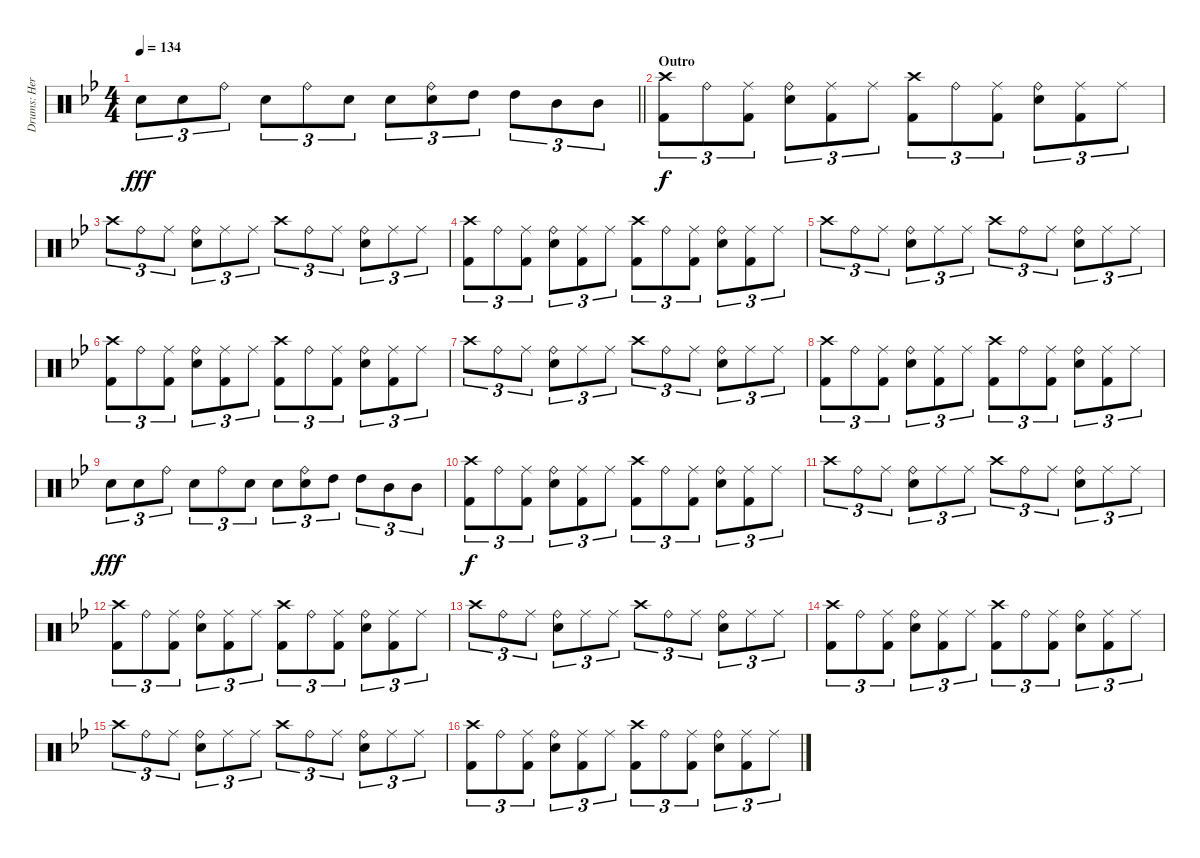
\track ("Drums: Herman" "Drums: Her") {instrument percussion}
\staff {score}
\articulation defaults
\ts (4 4)
\tempo 134
\clef neutral
\barLineRight lightlight
\ks bb "Snare (hit) 2".8{tu (3 2) dy fff} "Snare (hit) 2".8{tu (3 2)} "Ride (bell)".8{tu (3 2)} "Snare (hit) 2".8{tu (3 2)} "Ride (bell)".8{tu (3 2)} "Snare (hit) 2".8{tu (3 2)} "Snare (hit) 2".8{tu (3 2)}
("Ride (bell)" "Snare (hit) 2").8{tu (3 2)} "High Tom (hit)".8{tu (3 2)} "High Tom (hit)".8{tu (3 2)} "Mid Tom (hit)".8{tu (3 2)} "Mid Tom (hit)".8{tu (3 2)} |
\section ("" "Outro")
("Crash high (hit)" "Kick (hit) 2").8{tu (3 2) dy f} "Ride (bell)".8{tu (3 2)} ("Ride (middle)" "Kick (hit) 2").8{tu (3 2)} ("Ride (bell)" "Snare (hit) 2").8{tu (3 2)} ("Ride (middle)" "Kick (hit) 2").8{tu (3 2)} "Ride (middle)".8{tu (3 2)} ("Crash high (hit)" "Kick (hit) 2").8{tu (3 2)} "Ride (bell)".8{tu (3 2)} ("Ride (middle)" "Kick (hit) 2").8{tu (3 2)} ("Ride (bell)" "Snare (hit) 2").8{tu (3 2)} ("Ride (middle)" "Kick (hit) 2").8{tu (3 2)} "Ride (middle)".8{tu (3 2)} |
"Crash high (hit)".8{tu (3 2)} "Ride (bell)".8{tu (3 2)} "Ride (middle)".8{tu (3 2)} ("Ride (bell)" "Snare (hit) 2").8{tu (3 2)} "Ride (middle)".8{tu (3 2)} "Ride (middle)".8{tu (3 2)} "Crash high (hit)".8{tu (3 2)} "Ride (bell)".8{tu (3 2)} "Ride (middle)".8{tu (3 2)} ("Ride (bell)" "Snare (hit) 2").8{tu (3 2)} "Ride (middle)".8{tu (3 2)} "Ride (middle)".8{tu (3 2)} |
("Crash high (hit)" "Kick (hit) 2").8{tu (3 2)} "Ride (bell)".8{tu (3 2)} ("Ride (middle)" "Kick (hit) 2").8{tu (3 2)} ("Ride (bell)" "Snare (hit) 2").8{tu (3 2)} ("Ride (middle)" "Kick (hit) 2").8{tu (3 2)} "Ride (middle)".8{tu (3 2)} ("Crash high (hit)" "Kick (hit) 2").8{tu (3 2)} "Ride (bell)".8{tu (3 2)} ("Ride (middle)" "Kick (hit) 2").8{tu (3 2)} ("Ride (bell)" "Snare (hit) 2").8{tu (3 2)} ("Ride (middle)" "Kick (hit) 2").8{tu (3 2)} "Ride (middle)".8{tu (3 2)} |
"Crash high (hit)".8{tu (3 2)} "Ride (bell)".8{tu (3 2)} "Ride (middle)".8{tu (3 2)} ("Ride (bell)" "Snare (hit) 2").8{tu (3 2)} "Ride (middle)".8{tu (3 2)} "Ride (middle)".8{tu (3 2)} "Crash high (hit)".8{tu (3 2)} "Ride (bell)".8{tu (3 2)} "Ride (middle)".8{tu (3 2)} ("Ride (bell)" "Snare (hit) 2").8{tu (3 2)} "Ride (middle)".8{tu (3 2)} "Ride (middle)".8{tu (3 2)} |
("Crash high (hit)" "Kick (hit) 2").8{tu (3 2)} "Ride (bell)".8{tu (3 2)} ("Ride (middle)" "Kick (hit) 2").8{tu (3 2)} ("Ride (bell)" "Snare (hit) 2").8{tu (3 2)} ("Ride (middle)" "Kick (hit) 2").8{tu (3 2)} "Ride (middle)".8{tu (3 2)} ("Crash high (hit)" "Kick (hit) 2").8{tu (3 2)} "Ride (bell)".8{tu (3 2)} ("Ride (middle)" "Kick (hit) 2").8{tu (3 2)} ("Ride (bell)" "Snare (hit) 2").8{tu (3 2)} ("Ride (middle)" "Kick (hit) 2").8{tu (3 2)} "Ride (middle)".8{tu (3 2)} |
"Crash high (hit)".8{tu (3 2)} "Ride (bell)".8{tu (3 2)} "Ride (middle)".8{tu (3 2)} ("Ride (bell)" "Snare (hit) 2").8{tu (3 2)} "Ride (middle)".8{tu (3 2)} "Ride (middle)".8{tu (3 2)} "Crash high (hit)".8{tu (3 2)} "Ride (bell)".8{tu (3 2)} "Ride (middle)".8{tu (3 2)} ("Ride (bell)" "Snare (hit) 2").8{tu (3 2)} "Ride (middle)".8{tu (3 2)} "Ride (middle)".8{tu (3 2)} |
("Crash high (hit)" "Kick (hit) 2").8{tu (3 2)} "Ride (bell)".8{tu (3 2)} ("Ride (middle)" "Kick (hit) 2").8{tu (3 2)} ("Ride (bell)" "Snare (hit) 2").8{tu (3 2)} ("Ride (middle)" "Kick (hit) 2").8{tu (3 2)} "Ride (middle)".8{tu (3 2)} ("Crash high (hit)" "Kick (hit) 2").8{tu (3 2)} "Ride (bell)".8{tu (3 2)} ("Ride (middle)" "Kick (hit) 2").8{tu (3 2)} ("Ride (bell)" "Snare (hit) 2").8{tu (3 2)} ("Ride (middle)" "Kick (hit) 2").8{tu (3 2)} "Ride (middle)".8{tu (3 2)} |
"Snare (hit) 2".8{tu (3 2) dy fff} "Snare (hit) 2".8{tu (3 2)} "Ride (bell)".8{tu (3 2)} "Snare (hit) 2".8{tu (3 2)} "Ride (bell)".8{tu (3 2)} "Snare (hit) 2".8{tu (3 2)} "Snare (hit) 2".8{tu (3 2)} ("Ride (bell)" "Snare (hit) 2").8{tu (3 2)} "High Tom (hit)".8{tu (3 2)} "High Tom (hit)".8{tu (3 2)} "Mid Tom (hit)".8{tu (3 2)} "Mid Tom (hit)".8{tu (3 2)} |
("Crash high (hit)" "Kick (hit) 2").8{tu (3 2) dy f} "Ride (bell)".8{tu (3 2)} ("Ride (middle)" "Kick (hit) 2").8{tu (3 2)} ("Ride (bell)" "Snare (hit) 2").8{tu (3 2)} ("Ride (middle)" "Kick (hit) 2").8{tu (3 2)} "Ride (middle)".8{tu (3 2)} ("Crash high (hit)" "Kick (hit) 2").8{tu (3 2)} "Ride (bell)".8{tu (3 2)} ("Ride (middle)" "Kick (hit) 2").8{tu (3 2)} ("Ride (bell)" "Snare (hit) 2").8{tu (3 2)} ("Ride (middle)" "Kick (hit) 2").8{tu (3 2)} "Ride (middle)".8{tu (3 2)} |
"Crash high (hit)".8{tu (3 2)} "Ride (bell)".8{tu (3 2)} "Ride (middle)".8{tu (3 2)} ("Ride (bell)" "Snare (hit) 2").8{tu (3 2)} "Ride (middle)".8{tu (3 2)} "Ride (middle)".8{tu (3 2)} "Crash high (hit)".8{tu (3 2)} "Ride (bell)".8{tu (3 2)} "Ride (middle)".8{tu (3 2)} ("Ride (bell)" "Snare (hit) 2").8{tu (3 2)} "Ride (middle)".8{tu (3 2)} "Ride (middle)".8{tu (3 2)} |
("Crash high (hit)" "Kick (hit) 2").8{tu (3 2)} "Ride (bell)".8{tu (3 2)} ("Ride (middle)" "Kick (hit) 2").8{tu (3 2)} ("Ride (bell)" "Snare (hit) 2").8{tu (3 2)} ("Ride (middle)" "Kick (hit) 2").8{tu (3 2)} "Ride (middle)".8{tu (3 2)} ("Crash high (hit)" "Kick (hit) 2").8{tu (3 2)} "Ride (bell)".8{tu (3 2)} ("Ride (middle)" "Kick (hit) 2").8{tu (3 2)} ("Ride (bell)" "Snare (hit) 2").8{tu (3 2)} ("Ride (middle)" "Kick (hit) 2").8{tu (3 2)} "Ride (middle)".8{tu (3 2)} |
"Crash high (hit)".8{tu (3 2)} "Ride (bell)".8{tu (3 2)} "Ride (middle)".8{tu (3 2)} ("Ride (bell)" "Snare (hit) 2").8{tu (3 2)} "Ride (middle)".8{tu (3 2)} "Ride (middle)".8{tu (3 2)} "Crash high (hit)".8{tu (3 2)} "Ride (bell)".8{tu (3 2)} "Ride (middle)".8{tu (3 2)} ("Ride (bell)" "Snare (hit) 2").8{tu (3 2)} "Ride (middle)".8{tu (3 2)} "Ride (middle)".8{tu (3 2)} |
("Crash high (hit)" "Kick (hit) 2").8{tu (3 2)} "Ride (bell)".8{tu (3 2)} ("Ride (middle)" "Kick (hit) 2").8{tu (3 2)} ("Ride (bell)" "Snare (hit) 2").8{tu (3 2)} ("Ride (middle)" "Kick (hit) 2").8{tu (3 2)} "Ride (middle)".8{tu (3 2)} ("Crash high (hit)" "Kick (hit) 2").8{tu (3 2)} "Ride (bell)".8{tu (3 2)} ("Ride (middle)" "Kick (hit) 2").8{tu (3 2)} ("Ride (bell)" "Snare (hit) 2").8{tu (3 2)} ("Ride (middle)" "Kick (hit) 2").8{tu (3 2)} "Ride (middle)".8{tu (3 2)} |
"Crash high (hit)".8{tu (3 2)} "Ride (bell)".8{tu (3 2)} "Ride (middle)".8{tu (3 2)} ("Ride (bell)" "Snare (hit) 2").8{tu (3 2)} "Ride (middle)".8{tu (3 2)} "Ride (middle)".8{tu (3 2)} "Crash high (hit)".8{tu (3 2)} "Ride (bell)".8{tu (3 2)} "Ride (middle)".8{tu (3 2)} ("Ride (bell)" "Snare (hit) 2").8{tu (3 2)} "Ride (middle)".8{tu (3 2)} "Ride (middle)".8{tu (3 2)} |
("Crash high (hit)" "Kick (hit) 2").8{tu (3 2)} "Ride (bell)".8{tu (3 2)} ("Ride (middle)" "Kick (hit) 2").8{tu (3 2)} ("Ride (bell)" "Snare (hit) 2").8{tu (3 2)} ("Ride (middle)" "Kick (hit) 2").8{tu (3 2)} "Ride (middle)".8{tu (3 2)} ("Crash high (hit)" "Kick (hit) 2").8{tu (3 2)} "Ride (bell)".8{tu (3 2)} ("Ride (middle)" "Kick (hit) 2").8{tu (3 2)} ("Ride (bell)" "Snare (hit) 2").8{tu (3 2)} ("Ride (middle)" "Kick (hit) 2").8{tu (3 2)} "Ride (middle)".8{tu (3 2)}
